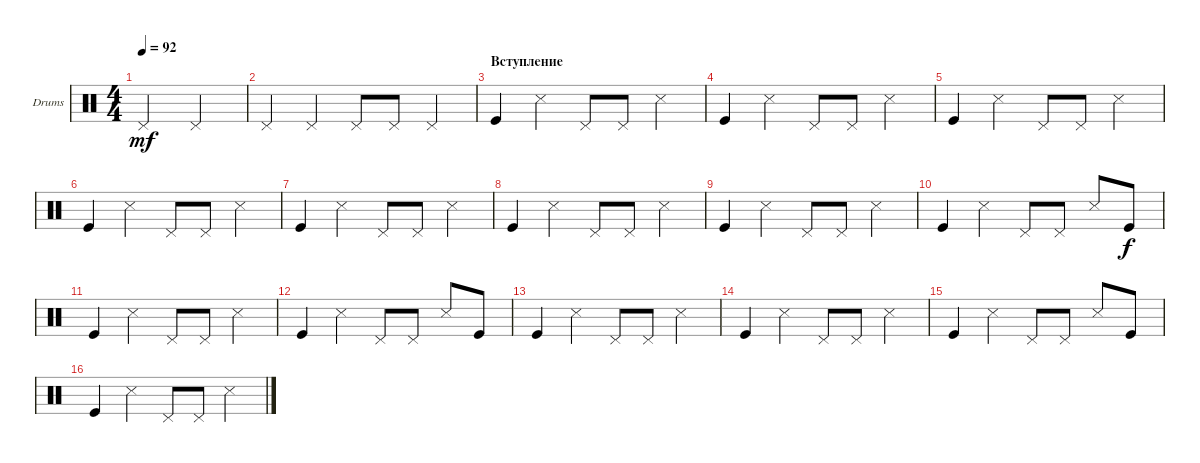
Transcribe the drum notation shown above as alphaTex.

\defaultSystemsLayout 4
\bracketExtendMode groupsimilarinstruments
\firstSystemTrackNameOrientation horizontal
\otherSystemsTrackNameOrientation horizontal
\track ("Е. Кулаков" "Drums") {instrument percussion}
\staff {score}
\articulation defaults
\ts (4 4)
\tempo 92
\clef neutral
\ks c "Pedal Hi-Hat (hit)".2{dy mf} "Pedal Hi-Hat (hit)".2
|
"Pedal Hi-Hat (hit)".4 "Pedal Hi-Hat (hit)".4 "Pedal Hi-Hat (hit)".8 "Pedal Hi-Hat (hit)".8 "Pedal Hi-Hat (hit)".4 |
\section ("" "Вступление")
"Kick (hit)".4 "Snare (side stick) 3".4 "Pedal Hi-Hat (hit)".8 "Pedal Hi-Hat (hit)".8 "Snare (side stick) 3".4 |
"Kick (hit)".4 "Snare (side stick) 3".4 "Pedal Hi-Hat (hit)".8 "Pedal Hi-Hat (hit)".8 "Snare (side stick) 3".4 |
"Kick (hit)".4 "Snare (side stick) 3".4 "Pedal Hi-Hat (hit)".8 "Pedal Hi-Hat (hit)".8 "Snare (side stick) 3".4 |
"Kick (hit)".4 "Snare (side stick) 3".4 "Pedal Hi-Hat (hit)".8 "Pedal Hi-Hat (hit)".8 "Snare (side stick) 3".4 |
"Kick (hit)".4 "Snare (side stick) 3".4 "Pedal Hi-Hat (hit)".8 "Pedal Hi-Hat (hit)".8 "Snare (side stick) 3".4 |
"Kick (hit)".4 "Snare (side stick) 3".4 "Pedal Hi-Hat (hit)".8 "Pedal Hi-Hat (hit)".8 "Snare (side stick) 3".4 |
"Kick (hit)".4 "Snare (side stick) 3".4 "Pedal Hi-Hat (hit)".8 "Pedal Hi-Hat (hit)".8 "Snare (side stick) 3".4 |
"Kick (hit)".4 "Snare (side stick) 3".4 "Pedal Hi-Hat (hit)".8 "Pedal Hi-Hat (hit)".8 "Snare (side stick) 3".8 "Kick (hit)".8{dy f} |
"Kick (hit)".4 "Snare (side stick) 3".4 "Pedal Hi-Hat (hit)".8 "Pedal Hi-Hat (hit)".8 "Snare (side stick) 3".4 |
"Kick (hit)".4 "Snare (side stick) 3".4 "Pedal Hi-Hat (hit)".8 "Pedal Hi-Hat (hit)".8 "Snare (side stick) 3".8 "Kick (hit)".8 |
"Kick (hit)".4 "Snare (side stick) 3".4 "Pedal Hi-Hat (hit)".8 "Pedal Hi-Hat (hit)".8 "Snare (side stick) 3".4 |
"Kick (hit)".4 "Snare (side stick) 3".4 "Pedal Hi-Hat (hit)".8 "Pedal Hi-Hat (hit)".8 "Snare (side stick) 3".4 |
"Kick (hit)".4 "Snare (side stick) 3".4 "Pedal Hi-Hat (hit)".8 "Pedal Hi-Hat (hit)".8 "Snare (side stick) 3".8 "Kick (hit)".8 |
"Kick (hit)".4 "Snare (side stick) 3".4 "Pedal Hi-Hat (hit)".8 "Pedal Hi-Hat (hit)".8 "Snare (side stick) 3".4
